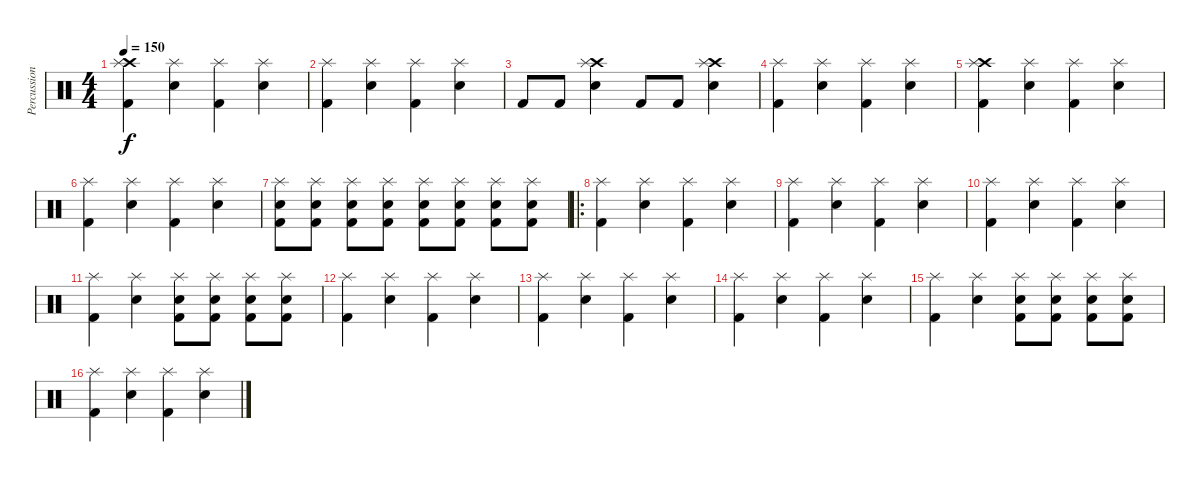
\track ("Percussion" "Percussion") {instrument percussion}
\staff {score}
\articulation defaults
\ts (4 4)
\tempo 150
\clef neutral
\ks c
("Crash high (hit)" "Splash (hit)" "Kick (hit) 2").4{dy f} ("Splash (hit)" "Electric Snare (hit)").4 ("Splash (hit)" "Kick (hit) 2").4 ("Splash (hit)" "Electric Snare (hit)").4 |
("Splash (hit)" "Kick (hit) 2").4 ("Splash (hit)" "Electric Snare (hit)").4 ("Splash (hit)" "Kick (hit) 2").4 ("Splash (hit)" "Electric Snare (hit)").4 |
"Kick (hit) 2".8 "Kick (hit) 2".8 ("Electric Snare (hit)" "Crash high (hit)" "Splash (hit)").4 "Kick (hit) 2".8 "Kick (hit) 2".8 ("Electric Snare (hit)" "Crash high (hit)" "Splash (hit)").4 |
("Splash (hit)" "Kick (hit) 2").4 ("Splash (hit)" "Electric Snare (hit)").4 ("Splash (hit)" "Kick (hit) 2").4 ("Splash (hit)" "Electric Snare (hit)").4 |
("Crash high (hit)" "Splash (hit)" "Kick (hit) 2").4 ("Splash (hit)" "Electric Snare (hit)").4 ("Splash (hit)" "Kick (hit) 2").4 ("Splash (hit)" "Electric Snare (hit)").4 |
("Splash (hit)" "Kick (hit) 2").4 ("Splash (hit)" "Electric Snare (hit)").4 ("Splash (hit)" "Kick (hit) 2").4 ("Splash (hit)" "Electric Snare (hit)").4 |
("Splash (hit)" "Electric Snare (hit)" "Kick (hit) 2").8 ("Splash (hit)" "Electric Snare (hit)" "Kick (hit) 2").8 ("Splash (hit)" "Electric Snare (hit)" "Kick (hit) 2").8 ("Splash (hit)" "Electric Snare (hit)" "Kick (hit) 2").8 ("Splash (hit)" "Electric Snare (hit)" "Kick (hit) 2").8 ("Splash (hit)" "Electric Snare (hit)" "Kick (hit) 2").8 ("Splash (hit)" "Electric Snare (hit)" "Kick (hit) 2").8 ("Splash (hit)" "Electric Snare (hit)" "Kick (hit) 2").8 |
\ro
("Splash (hit)" "Kick (hit) 2").4 ("Splash (hit)" "Electric Snare (hit)").4 ("Splash (hit)" "Kick (hit) 2").4 ("Splash (hit)" "Electric Snare (hit)").4 |
("Splash (hit)" "Kick (hit) 2").4 ("Splash (hit)" "Electric Snare (hit)").4 ("Splash (hit)" "Kick (hit) 2").4 ("Splash (hit)" "Electric Snare (hit)").4 |
("Splash (hit)" "Kick (hit) 2").4 ("Splash (hit)" "Electric Snare (hit)").4 ("Splash (hit)" "Kick (hit) 2").4 ("Splash (hit)" "Electric Snare (hit)").4 |
("Splash (hit)" "Kick (hit) 2").4 ("Splash (hit)" "Electric Snare (hit)").4 ("Splash (hit)" "Electric Snare (hit)" "Kick (hit) 2").8 ("Splash (hit)" "Electric Snare (hit)" "Kick (hit) 2").8 ("Splash (hit)" "Electric Snare (hit)" "Kick (hit) 2").8 ("Splash (hit)" "Electric Snare (hit)" "Kick (hit) 2").8 |
("Splash (hit)" "Kick (hit) 2").4 ("Splash (hit)" "Electric Snare (hit)").4 ("Splash (hit)" "Kick (hit) 2").4 ("Splash (hit)" "Electric Snare (hit)").4 |
("Splash (hit)" "Kick (hit) 2").4 ("Splash (hit)" "Electric Snare (hit)").4 ("Splash (hit)" "Kick (hit) 2").4 ("Splash (hit)" "Electric Snare (hit)").4 |
("Splash (hit)" "Kick (hit) 2").4 ("Splash (hit)" "Electric Snare (hit)").4 ("Splash (hit)" "Kick (hit) 2").4 ("Splash (hit)" "Electric Snare (hit)").4 |
("Splash (hit)" "Kick (hit) 2").4 ("Splash (hit)" "Electric Snare (hit)").4 ("Splash (hit)" "Electric Snare (hit)" "Kick (hit) 2").8 ("Splash (hit)" "Electric Snare (hit)" "Kick (hit) 2").8 ("Splash (hit)" "Electric Snare (hit)" "Kick (hit) 2").8 ("Splash (hit)" "Electric Snare (hit)" "Kick (hit) 2").8 |
("Splash (hit)" "Kick (hit) 2").4 ("Splash (hit)" "Electric Snare (hit)").4 ("Splash (hit)" "Kick (hit) 2").4 ("Splash (hit)" "Electric Snare (hit)").4
